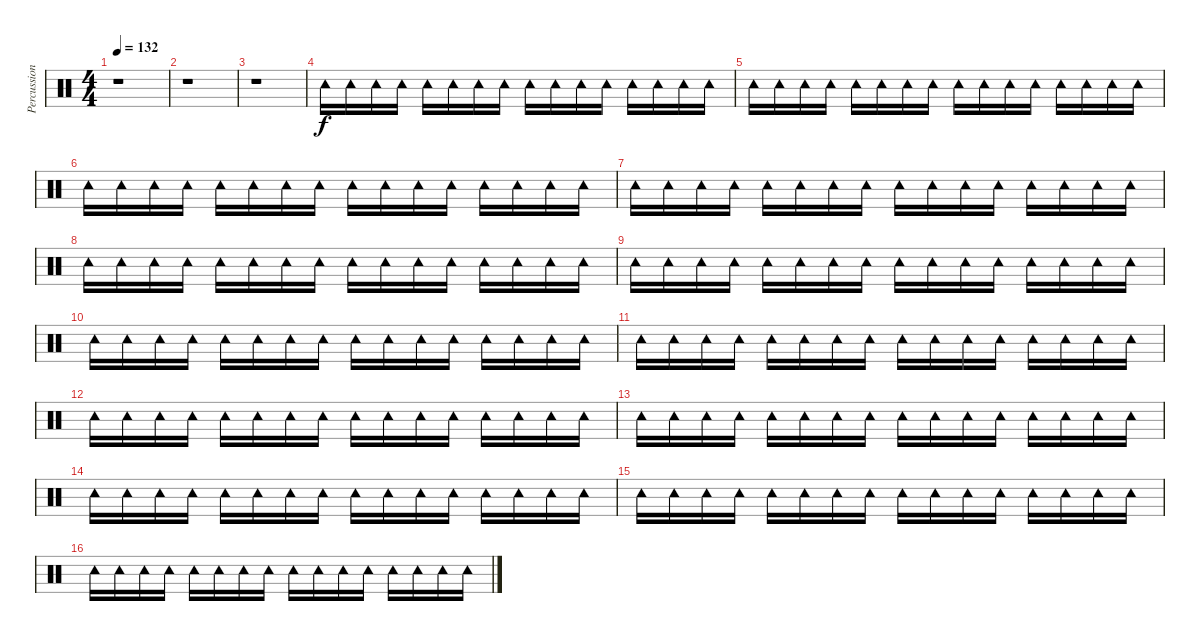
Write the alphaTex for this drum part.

\track ("Percussion" "Percussion") {instrument percussion}
\staff {score}
\articulation defaults
\ts (4 4)
\tempo 132
\clef neutral
\ks c
r.1{dy f} |
r.1 |
r.1 |
"Tambourine (hit)".16 "Tambourine (hit)".16 "Tambourine (hit)".16 "Tambourine (hit)".16 "Tambourine (hit)".16 "Tambourine (hit)".16 "Tambourine (hit)".16 "Tambourine (hit)".16 "Tambourine (hit)".16 "Tambourine (hit)".16 "Tambourine (hit)".16 "Tambourine (hit)".16 "Tambourine (hit)".16 "Tambourine (hit)".16 "Tambourine (hit)".16 "Tambourine (hit)".16 |
"Tambourine (hit)".16 "Tambourine (hit)".16 "Tambourine (hit)".16 "Tambourine (hit)".16 "Tambourine (hit)".16 "Tambourine (hit)".16 "Tambourine (hit)".16 "Tambourine (hit)".16 "Tambourine (hit)".16 "Tambourine (hit)".16 "Tambourine (hit)".16 "Tambourine (hit)".16 "Tambourine (hit)".16 "Tambourine (hit)".16 "Tambourine (hit)".16 "Tambourine (hit)".16 |
"Tambourine (hit)".16 "Tambourine (hit)".16 "Tambourine (hit)".16 "Tambourine (hit)".16 "Tambourine (hit)".16 "Tambourine (hit)".16 "Tambourine (hit)".16 "Tambourine (hit)".16 "Tambourine (hit)".16 "Tambourine (hit)".16 "Tambourine (hit)".16 "Tambourine (hit)".16 "Tambourine (hit)".16 "Tambourine (hit)".16 "Tambourine (hit)".16 "Tambourine (hit)".16 |
"Tambourine (hit)".16 "Tambourine (hit)".16 "Tambourine (hit)".16 "Tambourine (hit)".16 "Tambourine (hit)".16 "Tambourine (hit)".16 "Tambourine (hit)".16 "Tambourine (hit)".16 "Tambourine (hit)".16 "Tambourine (hit)".16 "Tambourine (hit)".16 "Tambourine (hit)".16 "Tambourine (hit)".16 "Tambourine (hit)".16 "Tambourine (hit)".16 "Tambourine (hit)".16 |
"Tambourine (hit)".16 "Tambourine (hit)".16 "Tambourine (hit)".16 "Tambourine (hit)".16 "Tambourine (hit)".16 "Tambourine (hit)".16 "Tambourine (hit)".16 "Tambourine (hit)".16 "Tambourine (hit)".16 "Tambourine (hit)".16 "Tambourine (hit)".16 "Tambourine (hit)".16 "Tambourine (hit)".16 "Tambourine (hit)".16 "Tambourine (hit)".16 "Tambourine (hit)".16 |
"Tambourine (hit)".16 "Tambourine (hit)".16 "Tambourine (hit)".16 "Tambourine (hit)".16 "Tambourine (hit)".16 "Tambourine (hit)".16 "Tambourine (hit)".16 "Tambourine (hit)".16 "Tambourine (hit)".16 "Tambourine (hit)".16 "Tambourine (hit)".16 "Tambourine (hit)".16 "Tambourine (hit)".16 "Tambourine (hit)".16 "Tambourine (hit)".16 "Tambourine (hit)".16 |
"Tambourine (hit)".16 "Tambourine (hit)".16 "Tambourine (hit)".16 "Tambourine (hit)".16 "Tambourine (hit)".16 "Tambourine (hit)".16 "Tambourine (hit)".16 "Tambourine (hit)".16 "Tambourine (hit)".16 "Tambourine (hit)".16 "Tambourine (hit)".16 "Tambourine (hit)".16 "Tambourine (hit)".16 "Tambourine (hit)".16 "Tambourine (hit)".16 "Tambourine (hit)".16 |
"Tambourine (hit)".16 "Tambourine (hit)".16 "Tambourine (hit)".16 "Tambourine (hit)".16 "Tambourine (hit)".16 "Tambourine (hit)".16 "Tambourine (hit)".16 "Tambourine (hit)".16 "Tambourine (hit)".16 "Tambourine (hit)".16 "Tambourine (hit)".16 "Tambourine (hit)".16 "Tambourine (hit)".16 "Tambourine (hit)".16 "Tambourine (hit)".16 "Tambourine (hit)".16 |
"Tambourine (hit)".16 "Tambourine (hit)".16 "Tambourine (hit)".16 "Tambourine (hit)".16 "Tambourine (hit)".16 "Tambourine (hit)".16 "Tambourine (hit)".16 "Tambourine (hit)".16 "Tambourine (hit)".16 "Tambourine (hit)".16 "Tambourine (hit)".16 "Tambourine (hit)".16 "Tambourine (hit)".16 "Tambourine (hit)".16 "Tambourine (hit)".16 "Tambourine (hit)".16 |
"Tambourine (hit)".16 "Tambourine (hit)".16 "Tambourine (hit)".16 "Tambourine (hit)".16 "Tambourine (hit)".16 "Tambourine (hit)".16 "Tambourine (hit)".16 "Tambourine (hit)".16 "Tambourine (hit)".16 "Tambourine (hit)".16 "Tambourine (hit)".16 "Tambourine (hit)".16 "Tambourine (hit)".16 "Tambourine (hit)".16 "Tambourine (hit)".16 "Tambourine (hit)".16 |
"Tambourine (hit)".16 "Tambourine (hit)".16 "Tambourine (hit)".16 "Tambourine (hit)".16 "Tambourine (hit)".16 "Tambourine (hit)".16 "Tambourine (hit)".16 "Tambourine (hit)".16 "Tambourine (hit)".16 "Tambourine (hit)".16 "Tambourine (hit)".16 "Tambourine (hit)".16 "Tambourine (hit)".16 "Tambourine (hit)".16 "Tambourine (hit)".16 "Tambourine (hit)".16 |
"Tambourine (hit)".16 "Tambourine (hit)".16 "Tambourine (hit)".16 "Tambourine (hit)".16 "Tambourine (hit)".16 "Tambourine (hit)".16 "Tambourine (hit)".16 "Tambourine (hit)".16 "Tambourine (hit)".16 "Tambourine (hit)".16 "Tambourine (hit)".16 "Tambourine (hit)".16 "Tambourine (hit)".16 "Tambourine (hit)".16 "Tambourine (hit)".16 "Tambourine (hit)".16 |
"Tambourine (hit)".16 "Tambourine (hit)".16 "Tambourine (hit)".16 "Tambourine (hit)".16 "Tambourine (hit)".16 "Tambourine (hit)".16 "Tambourine (hit)".16 "Tambourine (hit)".16 "Tambourine (hit)".16 "Tambourine (hit)".16 "Tambourine (hit)".16 "Tambourine (hit)".16 "Tambourine (hit)".16 "Tambourine (hit)".16 "Tambourine (hit)".16 "Tambourine (hit)".16
